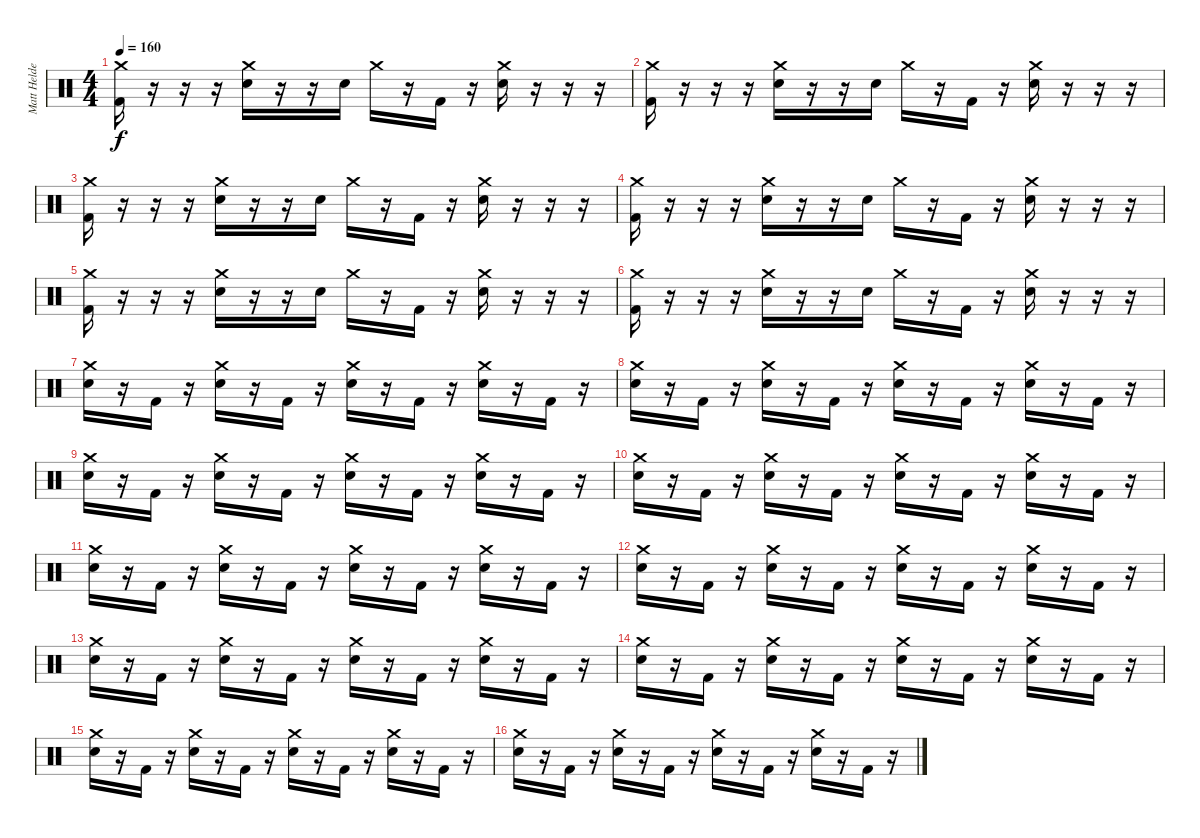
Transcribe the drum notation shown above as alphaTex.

\track ("Matt Helders" "Matt Helde") {instrument percussion}
\staff {score}
\articulation defaults
\ts (4 4)
\tempo 160
\clef neutral
\ks c
("Crash medium (hit)" "Kick (hit) 2").16{dy f} r.16 r.16 r.16 ("Crash medium (hit)" "Snare (hit) 2").16 r.16 r.16 "Snare (hit) 2".16 "Crash medium (hit)".16 r.16 "Kick (hit) 2".16 r.16 ("Crash medium (hit)" "Snare (hit) 2").16 r.16 r.16 r.16 |
("Crash medium (hit)" "Kick (hit) 2").16 r.16 r.16 r.16 ("Crash medium (hit)" "Snare (hit) 2").16 r.16 r.16 "Snare (hit) 2".16 "Crash medium (hit)".16 r.16 "Kick (hit) 2".16 r.16 ("Crash medium (hit)" "Snare (hit) 2").16 r.16 r.16 r.16 |
("Crash medium (hit)" "Kick (hit) 2").16 r.16 r.16 r.16 ("Crash medium (hit)" "Snare (hit) 2").16 r.16 r.16 "Snare (hit) 2".16 "Crash medium (hit)".16 r.16 "Kick (hit) 2".16 r.16 ("Crash medium (hit)" "Snare (hit) 2").16 r.16 r.16 r.16 |
("Crash medium (hit)" "Kick (hit) 2").16 r.16 r.16 r.16 ("Crash medium (hit)" "Snare (hit) 2").16 r.16 r.16 "Snare (hit) 2".16 "Crash medium (hit)".16 r.16 "Kick (hit) 2".16 r.16 ("Crash medium (hit)" "Snare (hit) 2").16 r.16 r.16 r.16 |
("Crash medium (hit)" "Kick (hit) 2").16 r.16 r.16 r.16 ("Crash medium (hit)" "Snare (hit) 2").16 r.16 r.16 "Snare (hit) 2".16 "Crash medium (hit)".16 r.16 "Kick (hit) 2".16 r.16 ("Crash medium (hit)" "Snare (hit) 2").16 r.16 r.16 r.16 |
("Crash medium (hit)" "Kick (hit) 2").16 r.16 r.16 r.16 ("Crash medium (hit)" "Snare (hit) 2").16 r.16 r.16 "Snare (hit) 2".16 "Crash medium (hit)".16 r.16 "Kick (hit) 2".16 r.16 ("Crash medium (hit)" "Snare (hit) 2").16 r.16 r.16 r.16 |
("Crash medium (hit)" "Snare (hit) 2").16 r.16 "Kick (hit) 2".16 r.16 ("Crash medium (hit)" "Snare (hit) 2").16 r.16 "Kick (hit) 2".16 r.16 ("Crash medium (hit)" "Snare (hit) 2").16 r.16 "Kick (hit) 2".16 r.16 ("Crash medium (hit)" "Snare (hit) 2").16 r.16 "Kick (hit) 2".16 r.16 |
("Crash medium (hit)" "Snare (hit) 2").16 r.16 "Kick (hit) 2".16 r.16 ("Crash medium (hit)" "Snare (hit) 2").16 r.16 "Kick (hit) 2".16 r.16 ("Crash medium (hit)" "Snare (hit) 2").16 r.16 "Kick (hit) 2".16 r.16 ("Crash medium (hit)" "Snare (hit) 2").16 r.16 "Kick (hit) 2".16 r.16 |
("Crash medium (hit)" "Snare (hit) 2").16 r.16 "Kick (hit) 2".16 r.16 ("Crash medium (hit)" "Snare (hit) 2").16 r.16 "Kick (hit) 2".16 r.16 ("Crash medium (hit)" "Snare (hit) 2").16 r.16 "Kick (hit) 2".16 r.16 ("Crash medium (hit)" "Snare (hit) 2").16 r.16 "Kick (hit) 2".16 r.16 |
("Crash medium (hit)" "Snare (hit) 2").16 r.16 "Kick (hit) 2".16 r.16 ("Crash medium (hit)" "Snare (hit) 2").16 r.16 "Kick (hit) 2".16 r.16 ("Crash medium (hit)" "Snare (hit) 2").16 r.16 "Kick (hit) 2".16 r.16 ("Crash medium (hit)" "Snare (hit) 2").16 r.16 "Kick (hit) 2".16 r.16 |
("Crash medium (hit)" "Snare (hit) 2").16 r.16 "Kick (hit) 2".16 r.16 ("Crash medium (hit)" "Snare (hit) 2").16 r.16 "Kick (hit) 2".16 r.16 ("Crash medium (hit)" "Snare (hit) 2").16 r.16 "Kick (hit) 2".16 r.16 ("Crash medium (hit)" "Snare (hit) 2").16 r.16 "Kick (hit) 2".16 r.16 |
("Crash medium (hit)" "Snare (hit) 2").16 r.16 "Kick (hit) 2".16 r.16 ("Crash medium (hit)" "Snare (hit) 2").16 r.16 "Kick (hit) 2".16 r.16 ("Crash medium (hit)" "Snare (hit) 2").16 r.16 "Kick (hit) 2".16 r.16 ("Crash medium (hit)" "Snare (hit) 2").16 r.16 "Kick (hit) 2".16 r.16 |
("Crash medium (hit)" "Snare (hit) 2").16 r.16 "Kick (hit) 2".16 r.16 ("Crash medium (hit)" "Snare (hit) 2").16 r.16 "Kick (hit) 2".16 r.16 ("Crash medium (hit)" "Snare (hit) 2").16 r.16 "Kick (hit) 2".16 r.16 ("Crash medium (hit)" "Snare (hit) 2").16 r.16 "Kick (hit) 2".16 r.16 |
("Crash medium (hit)" "Snare (hit) 2").16 r.16 "Kick (hit) 2".16 r.16 ("Crash medium (hit)" "Snare (hit) 2").16 r.16 "Kick (hit) 2".16 r.16 ("Crash medium (hit)" "Snare (hit) 2").16 r.16 "Kick (hit) 2".16 r.16 ("Crash medium (hit)" "Snare (hit) 2").16 r.16 "Kick (hit) 2".16 r.16 |
("Crash medium (hit)" "Snare (hit) 2").16 r.16 "Kick (hit) 2".16 r.16 ("Crash medium (hit)" "Snare (hit) 2").16 r.16 "Kick (hit) 2".16 r.16 ("Crash medium (hit)" "Snare (hit) 2").16 r.16 "Kick (hit) 2".16 r.16 ("Crash medium (hit)" "Snare (hit) 2").16 r.16 "Kick (hit) 2".16 r.16 |
("Crash medium (hit)" "Snare (hit) 2").16 r.16 "Kick (hit) 2".16 r.16 ("Crash medium (hit)" "Snare (hit) 2").16 r.16 "Kick (hit) 2".16 r.16 ("Crash medium (hit)" "Snare (hit) 2").16 r.16 "Kick (hit) 2".16 r.16 ("Crash medium (hit)" "Snare (hit) 2").16 r.16 "Kick (hit) 2".16 r.16
